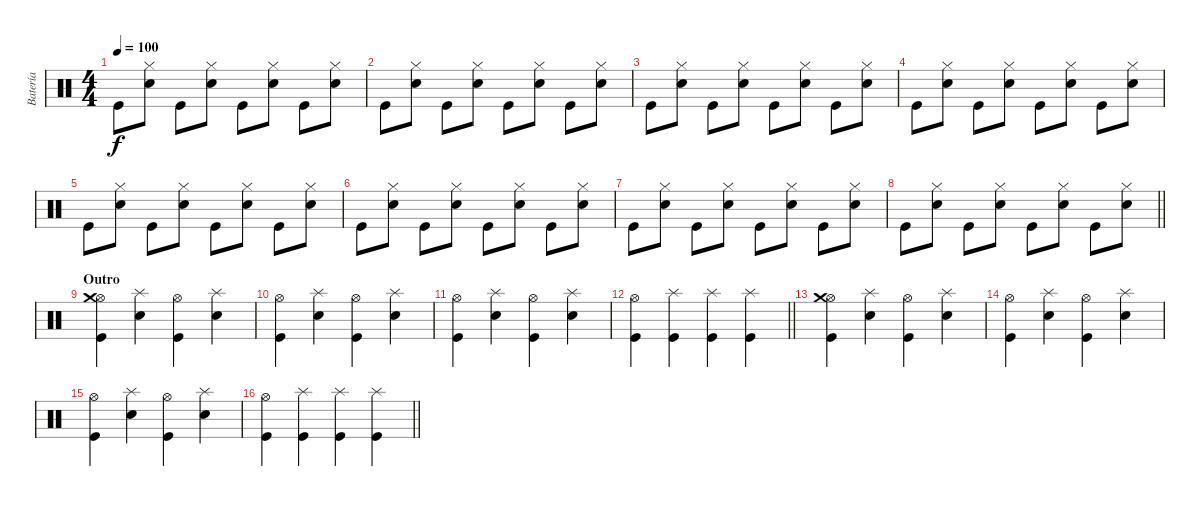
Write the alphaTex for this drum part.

\track ("Batería" "Batería") {instrument percussion}
\staff {score}
\articulation defaults
\ts (4 4)
\tempo 100
\clef neutral
\ks c "Kick (hit)".8{dy f}
("Electric Snare (hit)" "Hi-Hat (closed)").8 "Kick (hit)".8 ("Electric Snare (hit)" "Hi-Hat (closed)").8 "Kick (hit)".8 ("Electric Snare (hit)" "Hi-Hat (closed)").8 "Kick (hit)".8 ("Electric Snare (hit)" "Hi-Hat (closed)").8 |
"Kick (hit)".8 ("Electric Snare (hit)" "Hi-Hat (closed)").8 "Kick (hit)".8 ("Electric Snare (hit)" "Hi-Hat (closed)").8 "Kick (hit)".8 ("Electric Snare (hit)" "Hi-Hat (closed)").8 "Kick (hit)".8 ("Electric Snare (hit)" "Hi-Hat (closed)").8 |
"Kick (hit)".8 ("Electric Snare (hit)" "Hi-Hat (closed)").8 "Kick (hit)".8 ("Electric Snare (hit)" "Hi-Hat (closed)").8 "Kick (hit)".8 ("Electric Snare (hit)" "Hi-Hat (closed)").8 "Kick (hit)".8 ("Electric Snare (hit)" "Hi-Hat (closed)").8 |
"Kick (hit)".8 ("Electric Snare (hit)" "Hi-Hat (closed)").8 "Kick (hit)".8 ("Electric Snare (hit)" "Hi-Hat (closed)").8 "Kick (hit)".8 ("Electric Snare (hit)" "Hi-Hat (closed)").8 "Kick (hit)".8 ("Electric Snare (hit)" "Hi-Hat (closed)").8 |
"Kick (hit)".8 ("Electric Snare (hit)" "Hi-Hat (closed)").8 "Kick (hit)".8 ("Electric Snare (hit)" "Hi-Hat (closed)").8 "Kick (hit)".8 ("Electric Snare (hit)" "Hi-Hat (closed)").8 "Kick (hit)".8 ("Electric Snare (hit)" "Hi-Hat (closed)").8 |
"Kick (hit)".8 ("Electric Snare (hit)" "Hi-Hat (closed)").8 "Kick (hit)".8 ("Electric Snare (hit)" "Hi-Hat (closed)").8 "Kick (hit)".8 ("Electric Snare (hit)" "Hi-Hat (closed)").8 "Kick (hit)".8 ("Electric Snare (hit)" "Hi-Hat (closed)").8 |
"Kick (hit)".8 ("Electric Snare (hit)" "Hi-Hat (closed)").8 "Kick (hit)".8 ("Electric Snare (hit)" "Hi-Hat (closed)").8 "Kick (hit)".8 ("Electric Snare (hit)" "Hi-Hat (closed)").8 "Kick (hit)".8 ("Electric Snare (hit)" "Hi-Hat (closed)").8 |
\barLineRight lightlight "Kick (hit)".8
("Electric Snare (hit)" "Hi-Hat (closed)").8 "Kick (hit)".8 ("Electric Snare (hit)" "Hi-Hat (closed)").8 "Kick (hit)".8 ("Electric Snare (hit)" "Hi-Hat (closed)").8 "Kick (hit)".8 ("Electric Snare (hit)" "Hi-Hat (closed)").8 |
\section ("" "Outro")
("Kick (hit)" "Hi-Hat (open)" "Crash medium (hit)").4 ("Electric Snare (hit)" "Splash (hit)").4 ("Kick (hit)" "Hi-Hat (open)").4 ("Electric Snare (hit)" "Splash (hit)").4 |
("Kick (hit)" "Hi-Hat (open)").4 ("Electric Snare (hit)" "Splash (hit)").4 ("Kick (hit)" "Hi-Hat (open)").4 ("Electric Snare (hit)" "Splash (hit)").4 |
("Kick (hit)" "Hi-Hat (open)").4 ("Electric Snare (hit)" "Splash (hit)").4 ("Kick (hit)" "Hi-Hat (open)").4 ("Electric Snare (hit)" "Splash (hit)").4 |
\barLineRight lightlight
("Kick (hit)" "Hi-Hat (open)").4 ("Kick (hit)" "Splash (hit)").4 ("Kick (hit)" "Splash (hit)").4 ("Kick (hit)" "Splash (hit)").4 |
("Kick (hit)" "Hi-Hat (open)" "Crash medium (hit)").4 ("Electric Snare (hit)" "Splash (hit)").4 ("Kick (hit)" "Hi-Hat (open)").4 ("Electric Snare (hit)" "Splash (hit)").4 |
("Kick (hit)" "Hi-Hat (open)").4 ("Electric Snare (hit)" "Splash (hit)").4 ("Kick (hit)" "Hi-Hat (open)").4 ("Electric Snare (hit)" "Splash (hit)").4 |
("Kick (hit)" "Hi-Hat (open)").4 ("Electric Snare (hit)" "Splash (hit)").4 ("Kick (hit)" "Hi-Hat (open)").4 ("Electric Snare (hit)" "Splash (hit)").4 |
\barLineRight lightlight
("Kick (hit)" "Hi-Hat (open)").4 ("Kick (hit)" "Splash (hit)").4 ("Kick (hit)" "Splash (hit)").4 ("Kick (hit)" "Splash (hit)").4
